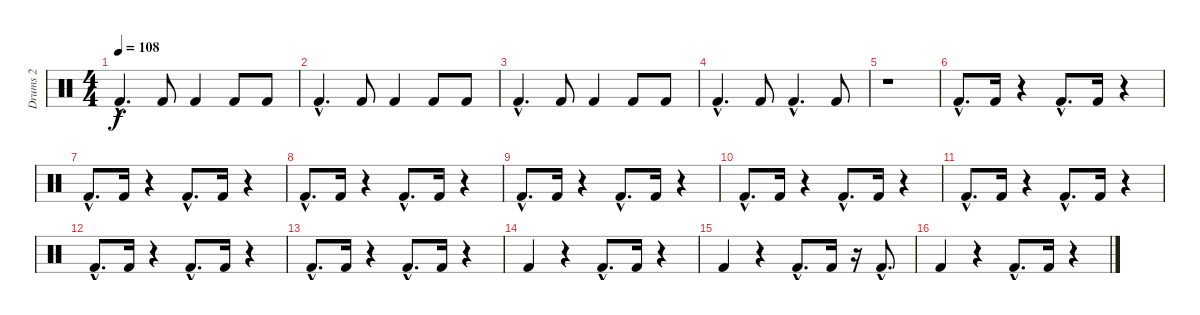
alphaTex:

\track ("Drums 2" "Drums 2") {instrument percussion}
\staff {score}
\articulation defaults
\ts (4 4)
\tempo 108
\clef neutral
\ks c "Kick (hit) 2"{hac}.4{d dy f} "Kick (hit) 2".8 "Kick (hit) 2".4 "Kick (hit) 2".8 "Kick (hit) 2".8
|
"Kick (hit) 2"{hac}.4{d} "Kick (hit) 2".8 "Kick (hit) 2".4 "Kick (hit) 2".8 "Kick (hit) 2".8 |
"Kick (hit) 2"{hac}.4{d} "Kick (hit) 2".8 "Kick (hit) 2".4 "Kick (hit) 2".8 "Kick (hit) 2".8 |
"Kick (hit) 2"{hac}.4{d} "Kick (hit) 2".8 "Kick (hit) 2"{hac}.4{d} "Kick (hit) 2".8 |
r.1 |
"Kick (hit) 2"{hac}.8{d} "Kick (hit) 2".16 r.4 "Kick (hit) 2"{hac}.8{d} "Kick (hit) 2".16 r.4 |
"Kick (hit) 2"{hac}.8{d} "Kick (hit) 2".16 r.4 "Kick (hit) 2"{hac}.8{d} "Kick (hit) 2".16 r.4 |
"Kick (hit) 2"{hac}.8{d} "Kick (hit) 2".16 r.4 "Kick (hit) 2"{hac}.8{d} "Kick (hit) 2".16 r.4 |
"Kick (hit) 2"{hac}.8{d} "Kick (hit) 2".16 r.4 "Kick (hit) 2"{hac}.8{d} "Kick (hit) 2".16 r.4 |
"Kick (hit) 2"{hac}.8{d} "Kick (hit) 2".16 r.4 "Kick (hit) 2"{hac}.8{d} "Kick (hit) 2".16 r.4 |
"Kick (hit) 2"{hac}.8{d} "Kick (hit) 2".16 r.4 "Kick (hit) 2"{hac}.8{d} "Kick (hit) 2".16 r.4 |
"Kick (hit) 2"{hac}.8{d} "Kick (hit) 2".16 r.4 "Kick (hit) 2"{hac}.8{d} "Kick (hit) 2".16 r.4 |
"Kick (hit) 2"{hac}.8{d} "Kick (hit) 2".16 r.4 "Kick (hit) 2"{hac}.8{d} "Kick (hit) 2".16 r.4 |
"Kick (hit) 2".4 r.4 "Kick (hit) 2"{hac}.8{d} "Kick (hit) 2".16 r.4 |
"Kick (hit) 2".4 r.4 "Kick (hit) 2"{hac}.8{d} "Kick (hit) 2".16 r.16 "Kick (hit) 2"{hac}.8{d} |
"Kick (hit) 2".4 r.4 "Kick (hit) 2"{hac}.8{d} "Kick (hit) 2".16 r.4
